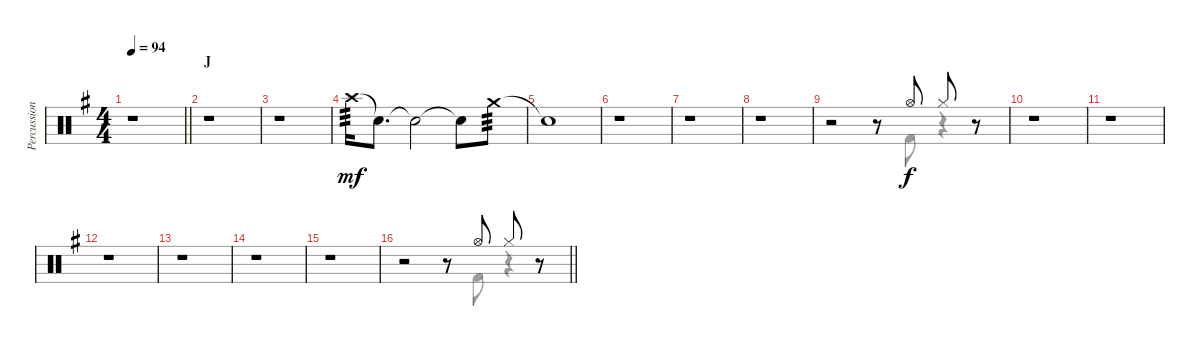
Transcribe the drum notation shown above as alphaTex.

\track ("Percussion" "Percussion") {instrument percussion}
\staff {score}
\articulation defaults
\voice
\ts (4 4)
\tempo 94
\clef neutral
\barLineRight lightlight
\ks g
r.1{dy f} |
\section ("" "J")
r.1 |
r.1 |
"Crash high (hit)".16{tp 3 dy mf} "Snare (hit)"{t}.8{d} "Snare (hit)"{t}.2 "Snare (hit)"{t}.8 "Crash medium (hit)".8{tp 3} |
"Snare (hit)"{t}.1 |
r.1 |
r.1 |
r.1 |
r.2 r.8 "Hi-Hat (open)".8{dy f} "Hi-Hat (closed)".8 r.8 |
r.1 |
r.1 |
r.1 |
r.1 |
r.1 |
r.1 |
\barLineRight lightlight
r.2 r.8 "Hi-Hat (open)".8 "Hi-Hat (closed)".8 r.8
\voice
\clef neutral
\ottava regular
\simile none
\barLineRight lightlight
\ks g
|
|
|
|
|
|
|
|
r.2 r.8 "Kick (hit) 2".8 r.4 |
|
|
|
|
|
|
\barLineRight lightlight
r.2 r.8 "Kick (hit) 2".8 r.4
